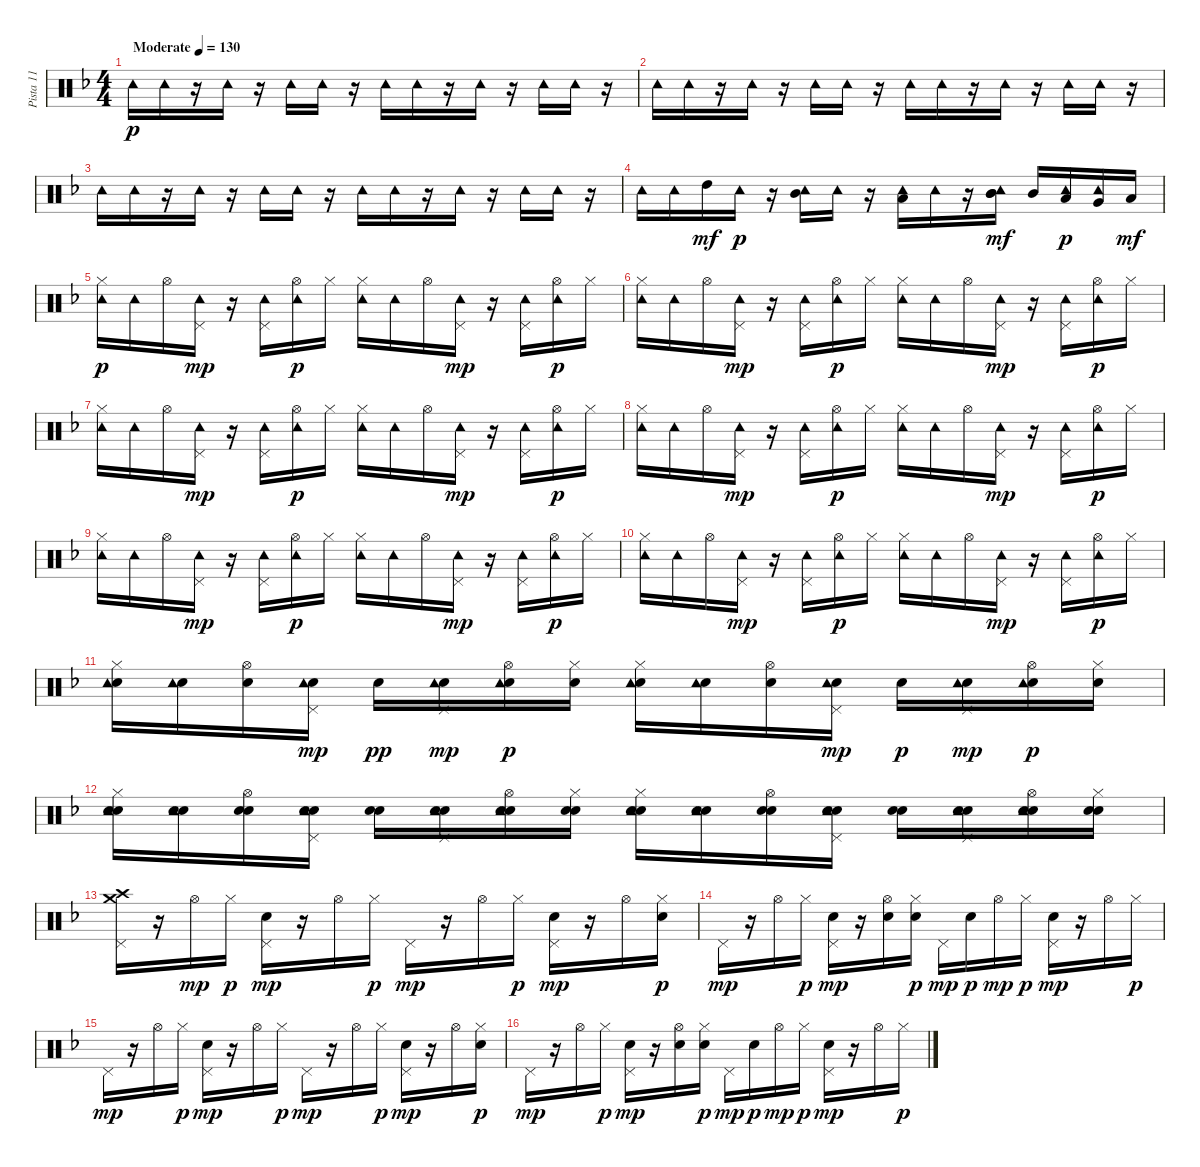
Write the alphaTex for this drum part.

\track ("Pista 11" "Pista 11") {instrument percussion}
\staff {score}
\articulation defaults
\ts (4 4)
\tempo (130 "Moderate")
\clef neutral
\ks dminor "Tambourine (hit)".16{dy p volume 15 balance 8} "Tambourine (hit)".16
r.16 "Tambourine (hit)".16 r.16 "Tambourine (hit)".16 "Tambourine (hit)".16 r.16 "Tambourine (hit)".16 "Tambourine (hit)".16 r.16 "Tambourine (hit)".16 r.16 "Tambourine (hit)".16 "Tambourine (hit)".16 r.16 |
"Tambourine (hit)".16 "Tambourine (hit)".16 r.16 "Tambourine (hit)".16 r.16 "Tambourine (hit)".16 "Tambourine (hit)".16 r.16 "Tambourine (hit)".16 "Tambourine (hit)".16 r.16 "Tambourine (hit)".16 r.16 "Tambourine (hit)".16 "Tambourine (hit)".16 r.16 |
"Tambourine (hit)".16 "Tambourine (hit)".16 r.16 "Tambourine (hit)".16 r.16 "Tambourine (hit)".16 "Tambourine (hit)".16 r.16 "Tambourine (hit)".16 "Tambourine (hit)".16 r.16 "Tambourine (hit)".16 r.16 "Tambourine (hit)".16 "Tambourine (hit)".16 r.16 |
"Tambourine (hit)".16 "Tambourine (hit)".16 "High Tom (hit)".16{dy mf} "Tambourine (hit)".16{dy p} r.16 ("Mid Tom (hit)" "Tambourine (hit)").16 "Tambourine (hit)".16 r.16 ("Low Floor Tom (hit)" "Tambourine (hit)").16 "Tambourine (hit)".16 r.16 ("Mid Tom (hit)" "Tambourine (hit)" "Mid Tom (hit)").16{dy mf} "Mid Tom (hit)".16 ("Low Tom (hit)" "Tambourine (hit)").16{dy p} ("Very Low Tom (hit)" "Tambourine (hit)").16 "Low Floor Tom (hit)".16{dy mf} |
("Tambourine (hit)" "Hi-Hat (closed)").16{dy p} "Tambourine (hit)".16 "Hi-Hat (open)".16 ("Tambourine (hit)" "Pedal Hi-Hat (hit)").16{dy mp} r.16 ("Tambourine (hit)" "Pedal Hi-Hat (hit)").16 ("Tambourine (hit)" "Hi-Hat (open)").16{dy p} "Hi-Hat (closed)".16 ("Tambourine (hit)" "Hi-Hat (closed)").16 "Tambourine (hit)".16 "Hi-Hat (open)".16 ("Tambourine (hit)" "Pedal Hi-Hat (hit)").16{dy mp} r.16 ("Tambourine (hit)" "Pedal Hi-Hat (hit)").16 ("Tambourine (hit)" "Hi-Hat (open)").16{dy p} "Hi-Hat (closed)".16 |
("Tambourine (hit)" "Hi-Hat (closed)").16 "Tambourine (hit)".16 "Hi-Hat (open)".16 ("Tambourine (hit)" "Pedal Hi-Hat (hit)").16{dy mp} r.16 ("Tambourine (hit)" "Pedal Hi-Hat (hit)").16 ("Tambourine (hit)" "Hi-Hat (open)").16{dy p} "Hi-Hat (closed)".16 ("Tambourine (hit)" "Hi-Hat (closed)").16 "Tambourine (hit)".16 "Hi-Hat (open)".16 ("Tambourine (hit)" "Pedal Hi-Hat (hit)").16{dy mp} r.16 ("Tambourine (hit)" "Pedal Hi-Hat (hit)").16 ("Tambourine (hit)" "Hi-Hat (open)").16{dy p} "Hi-Hat (closed)".16 |
("Tambourine (hit)" "Hi-Hat (closed)").16 "Tambourine (hit)".16 "Hi-Hat (open)".16 ("Tambourine (hit)" "Pedal Hi-Hat (hit)").16{dy mp} r.16 ("Tambourine (hit)" "Pedal Hi-Hat (hit)").16 ("Tambourine (hit)" "Hi-Hat (open)").16{dy p} "Hi-Hat (closed)".16 ("Tambourine (hit)" "Hi-Hat (closed)").16 "Tambourine (hit)".16 "Hi-Hat (open)".16 ("Tambourine (hit)" "Pedal Hi-Hat (hit)").16{dy mp} r.16 ("Tambourine (hit)" "Pedal Hi-Hat (hit)").16 ("Tambourine (hit)" "Hi-Hat (open)").16{dy p} "Hi-Hat (closed)".16 |
("Tambourine (hit)" "Hi-Hat (closed)").16 "Tambourine (hit)".16 "Hi-Hat (open)".16 ("Tambourine (hit)" "Pedal Hi-Hat (hit)").16{dy mp} r.16 ("Tambourine (hit)" "Pedal Hi-Hat (hit)").16 ("Tambourine (hit)" "Hi-Hat (open)").16{dy p} "Hi-Hat (closed)".16 ("Tambourine (hit)" "Hi-Hat (closed)").16 "Tambourine (hit)".16 "Hi-Hat (open)".16 ("Tambourine (hit)" "Pedal Hi-Hat (hit)").16{dy mp} r.16 ("Tambourine (hit)" "Pedal Hi-Hat (hit)").16 ("Tambourine (hit)" "Hi-Hat (open)").16{dy p} "Hi-Hat (closed)".16 |
("Tambourine (hit)" "Hi-Hat (closed)").16 "Tambourine (hit)".16 "Hi-Hat (open)".16 ("Tambourine (hit)" "Pedal Hi-Hat (hit)").16{dy mp} r.16 ("Tambourine (hit)" "Pedal Hi-Hat (hit)").16 ("Tambourine (hit)" "Hi-Hat (open)").16{dy p} "Hi-Hat (closed)".16 ("Tambourine (hit)" "Hi-Hat (closed)").16 "Tambourine (hit)".16 "Hi-Hat (open)".16 ("Tambourine (hit)" "Pedal Hi-Hat (hit)").16{dy mp} r.16 ("Tambourine (hit)" "Pedal Hi-Hat (hit)").16 ("Tambourine (hit)" "Hi-Hat (open)").16{dy p} "Hi-Hat (closed)".16 |
("Tambourine (hit)" "Hi-Hat (closed)").16 "Tambourine (hit)".16 "Hi-Hat (open)".16 ("Tambourine (hit)" "Pedal Hi-Hat (hit)").16{dy mp} r.16 ("Tambourine (hit)" "Pedal Hi-Hat (hit)").16 ("Tambourine (hit)" "Hi-Hat (open)").16{dy p} "Hi-Hat (closed)".16 ("Tambourine (hit)" "Hi-Hat (closed)").16 "Tambourine (hit)".16 "Hi-Hat (open)".16 ("Tambourine (hit)" "Pedal Hi-Hat (hit)").16{dy mp} r.16 ("Tambourine (hit)" "Pedal Hi-Hat (hit)").16 ("Tambourine (hit)" "Hi-Hat (open)").16{dy p} "Hi-Hat (closed)".16 |
("Snare (hit) 2" "Tambourine (hit)" "Hi-Hat (closed)").16 ("Snare (hit) 2" "Tambourine (hit)").16 ("Snare (hit) 2" "Hi-Hat (open)").16 ("Snare (hit) 2" "Tambourine (hit)" "Pedal Hi-Hat (hit)").16{dy mp} "Snare (hit) 2".16{dy pp} ("Snare (hit) 2" "Tambourine (hit)" "Pedal Hi-Hat (hit)").16{dy mp} ("Snare (hit) 2" "Tambourine (hit)" "Hi-Hat (open)").16{dy p} ("Snare (hit) 2" "Hi-Hat (closed)").16 ("Snare (hit) 2" "Tambourine (hit)" "Hi-Hat (closed)").16 ("Snare (hit) 2" "Tambourine (hit)").16 ("Snare (hit) 2" "Hi-Hat (open)").16 ("Snare (hit) 2" "Tambourine (hit)" "Pedal Hi-Hat (hit)").16{dy mp} "Snare (hit) 2".16{dy p} ("Snare (hit) 2" "Tambourine (hit)" "Pedal Hi-Hat (hit)").16{dy mp} ("Snare (hit) 2" "Tambourine (hit)" "Hi-Hat (open)").16{dy p} ("Snare (hit) 2" "Hi-Hat (closed)").16 |
("Snare (hit) 2" "Tambourine (hit)" "Hi-Hat (closed)" "Snare (hit) 2").16 ("Snare (hit) 2" "Tambourine (hit)" "Snare (hit) 2").16 ("Snare (hit) 2" "Hi-Hat (open)" "Snare (hit) 2").16 ("Snare (hit) 2" "Tambourine (hit)" "Pedal Hi-Hat (hit)" "Snare (hit) 2").16 ("Snare (hit) 2" "Snare (hit) 2").16 ("Snare (hit) 2" "Tambourine (hit)" "Pedal Hi-Hat (hit)" "Snare (hit) 2").16 ("Snare (hit) 2" "Tambourine (hit)" "Hi-Hat (open)" "Snare (hit) 2").16 ("Snare (hit) 2" "Hi-Hat (closed)" "Snare (hit) 2").16 ("Snare (hit) 2" "Tambourine (hit)" "Hi-Hat (closed)" "Snare (hit) 2").16 ("Snare (hit) 2" "Tambourine (hit)" "Snare (hit) 2").16 ("Snare (hit) 2" "Hi-Hat (open)" "Snare (hit) 2").16 ("Snare (hit) 2" "Tambourine (hit)" "Pedal Hi-Hat (hit)" "Snare (hit) 2").16 ("Snare (hit) 2" "Snare (hit) 2").16 ("Snare (hit) 2" "Tambourine (hit)" "Pedal Hi-Hat (hit)" "Snare (hit) 2").16 ("Snare (hit) 2" "Tambourine (hit)" "Hi-Hat (open)" "Snare (hit) 2").16 ("Snare (hit) 2" "Hi-Hat (closed)" "Snare (hit) 2").16 |
("Pedal Hi-Hat (hit)" "Crash high (hit)" "Crash medium (hit)").16 r.16 "Hi-Hat (open)".16{dy mp} "Hi-Hat (closed)".16{dy p} ("Snare (hit) 2" "Pedal Hi-Hat (hit)").16{dy mp} r.16 "Hi-Hat (open)".16 "Hi-Hat (closed)".16{dy p} "Pedal Hi-Hat (hit)".16{dy mp} r.16 "Hi-Hat (open)".16 "Hi-Hat (closed)".16{dy p} ("Snare (hit) 2" "Pedal Hi-Hat (hit)").16{dy mp} r.16 "Hi-Hat (open)".16 ("Electric Snare (hit)" "Hi-Hat (closed)").16{dy p} |
"Pedal Hi-Hat (hit)".16{dy mp} r.16 "Hi-Hat (open)".16 "Hi-Hat (closed)".16{dy p} ("Snare (hit) 2" "Pedal Hi-Hat (hit)").16{dy mp} r.16 ("Snare (hit) 2" "Hi-Hat (open)").16 ("Electric Snare (hit)" "Hi-Hat (closed)").16{dy p} "Pedal Hi-Hat (hit)".16{dy mp} "Snare (hit) 2".16{dy p} "Hi-Hat (open)".16{dy mp} "Hi-Hat (closed)".16{dy p} ("Snare (hit) 2" "Pedal Hi-Hat (hit)").16{dy mp} r.16 "Hi-Hat (open)".16 "Hi-Hat (closed)".16{dy p} |
"Pedal Hi-Hat (hit)".16{dy mp} r.16 "Hi-Hat (open)".16 "Hi-Hat (closed)".16{dy p} ("Snare (hit) 2" "Pedal Hi-Hat (hit)").16{dy mp} r.16 "Hi-Hat (open)".16 "Hi-Hat (closed)".16{dy p} "Pedal Hi-Hat (hit)".16{dy mp} r.16 "Hi-Hat (open)".16 "Hi-Hat (closed)".16{dy p} ("Snare (hit) 2" "Pedal Hi-Hat (hit)").16{dy mp} r.16 "Hi-Hat (open)".16 ("Electric Snare (hit)" "Hi-Hat (closed)").16{dy p} |
"Pedal Hi-Hat (hit)".16{dy mp} r.16 "Hi-Hat (open)".16 "Hi-Hat (closed)".16{dy p} ("Snare (hit) 2" "Pedal Hi-Hat (hit)").16{dy mp} r.16 ("Snare (hit) 2" "Hi-Hat (open)").16 ("Electric Snare (hit)" "Hi-Hat (closed)").16{dy p} "Pedal Hi-Hat (hit)".16{dy mp} "Snare (hit) 2".16{dy p} "Hi-Hat (open)".16{dy mp} "Hi-Hat (closed)".16{dy p} ("Snare (hit) 2" "Pedal Hi-Hat (hit)").16{dy mp} r.16 "Hi-Hat (open)".16 "Hi-Hat (closed)".16{dy p}
